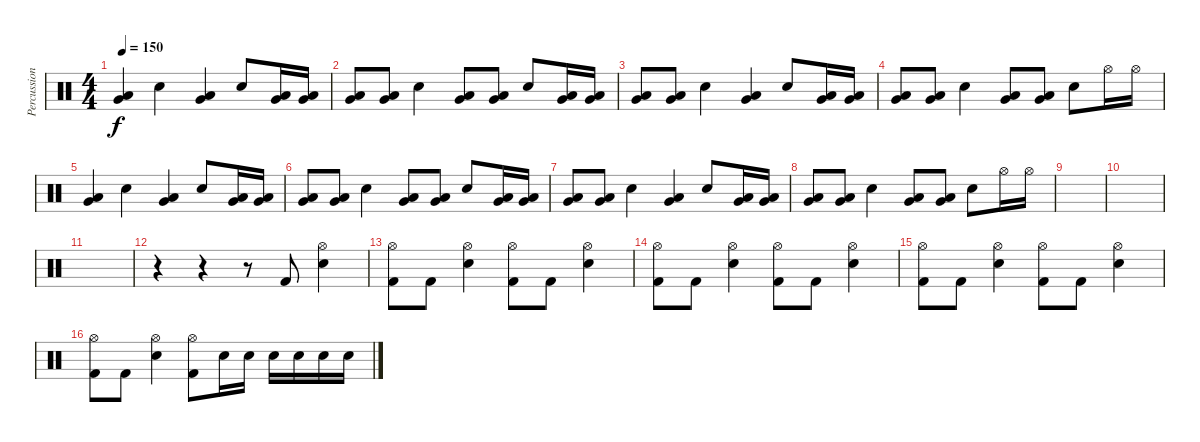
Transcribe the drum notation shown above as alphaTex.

\track ("Percussion" "Percussion") {instrument percussion}
\staff {score}
\articulation defaults
\ts (4 4)
\tempo 150
\clef neutral
\ks c
("Low Tom (hit)" "Very Low Tom (hit)").4{dy f} "Electric Snare (hit)".4 ("Low Tom (hit)" "Very Low Tom (hit)").4 "Electric Snare (hit)".8 ("Low Tom (hit)" "Very Low Tom (hit)").16 ("Very Low Tom (hit)" "Low Floor Tom (hit)").16 |
("Very Low Tom (hit)" "Low Floor Tom (hit)").8 ("Very Low Tom (hit)" "Low Floor Tom (hit)").8 "Electric Snare (hit)".4 ("Low Tom (hit)" "Very Low Tom (hit)").8 ("Low Tom (hit)" "Very Low Tom (hit)").8 "Electric Snare (hit)".8 ("Low Tom (hit)" "Very Low Tom (hit)").16 ("Very Low Tom (hit)" "Low Floor Tom (hit)").16 |
("Very Low Tom (hit)" "Low Floor Tom (hit)").8 ("Very Low Tom (hit)" "Low Floor Tom (hit)").8 "Electric Snare (hit)".4 ("Low Tom (hit)" "Very Low Tom (hit)").4 "Electric Snare (hit)".8 ("Low Tom (hit)" "Very Low Tom (hit)").16 ("Very Low Tom (hit)" "Low Floor Tom (hit)").16 |
("Very Low Tom (hit)" "Low Floor Tom (hit)").8 ("Very Low Tom (hit)" "Low Floor Tom (hit)").8 "Electric Snare (hit)".4 ("Low Tom (hit)" "Very Low Tom (hit)").8 ("Low Tom (hit)" "Very Low Tom (hit)").8 "Electric Snare (hit)".8 "Hi-Hat (open)".16 "Hi-Hat (open)".16 |
("Low Tom (hit)" "Very Low Tom (hit)").4 "Electric Snare (hit)".4 ("Low Tom (hit)" "Very Low Tom (hit)").4 "Electric Snare (hit)".8 ("Low Tom (hit)" "Very Low Tom (hit)").16 ("Very Low Tom (hit)" "Low Floor Tom (hit)").16 |
("Very Low Tom (hit)" "Low Floor Tom (hit)").8 ("Very Low Tom (hit)" "Low Floor Tom (hit)").8 "Electric Snare (hit)".4 ("Low Tom (hit)" "Very Low Tom (hit)").8 ("Low Tom (hit)" "Very Low Tom (hit)").8 "Electric Snare (hit)".8 ("Low Tom (hit)" "Very Low Tom (hit)").16 ("Very Low Tom (hit)" "Low Floor Tom (hit)").16 |
("Very Low Tom (hit)" "Low Floor Tom (hit)").8 ("Very Low Tom (hit)" "Low Floor Tom (hit)").8 "Electric Snare (hit)".4 ("Low Tom (hit)" "Very Low Tom (hit)").4 "Electric Snare (hit)".8 ("Low Tom (hit)" "Very Low Tom (hit)").16 ("Very Low Tom (hit)" "Low Floor Tom (hit)").16 |
("Very Low Tom (hit)" "Low Floor Tom (hit)").8 ("Very Low Tom (hit)" "Low Floor Tom (hit)").8 "Electric Snare (hit)".4 ("Low Tom (hit)" "Very Low Tom (hit)").8 ("Low Tom (hit)" "Very Low Tom (hit)").8 "Electric Snare (hit)".8 "Hi-Hat (open)".16 "Hi-Hat (open)".16 |
|
|
|
r.4 r.4 r.8 "Kick (hit) 2".8 ("Electric Snare (hit)" "Hi-Hat (open)").4 |
("Kick (hit) 2" "Hi-Hat (open)").8 "Kick (hit) 2".8 ("Electric Snare (hit)" "Hi-Hat (open)").4 ("Kick (hit) 2" "Hi-Hat (open)").8 "Kick (hit) 2".8 ("Electric Snare (hit)" "Hi-Hat (open)").4 |
("Kick (hit) 2" "Hi-Hat (open)").8 "Kick (hit) 2".8 ("Electric Snare (hit)" "Hi-Hat (open)").4 ("Kick (hit) 2" "Hi-Hat (open)").8 "Kick (hit) 2".8 ("Electric Snare (hit)" "Hi-Hat (open)").4 |
("Kick (hit) 2" "Hi-Hat (open)").8 "Kick (hit) 2".8 ("Electric Snare (hit)" "Hi-Hat (open)").4 ("Kick (hit) 2" "Hi-Hat (open)").8 "Kick (hit) 2".8 ("Electric Snare (hit)" "Hi-Hat (open)").4 |
("Kick (hit) 2" "Hi-Hat (open)").8 "Kick (hit) 2".8 ("Electric Snare (hit)" "Hi-Hat (open)").4 ("Kick (hit) 2" "Hi-Hat (open)").8 "Electric Snare (hit)".16 "Electric Snare (hit)".16 "Electric Snare (hit)".16 "Electric Snare (hit)".16 "Electric Snare (hit)".16 "Electric Snare (hit)".16
